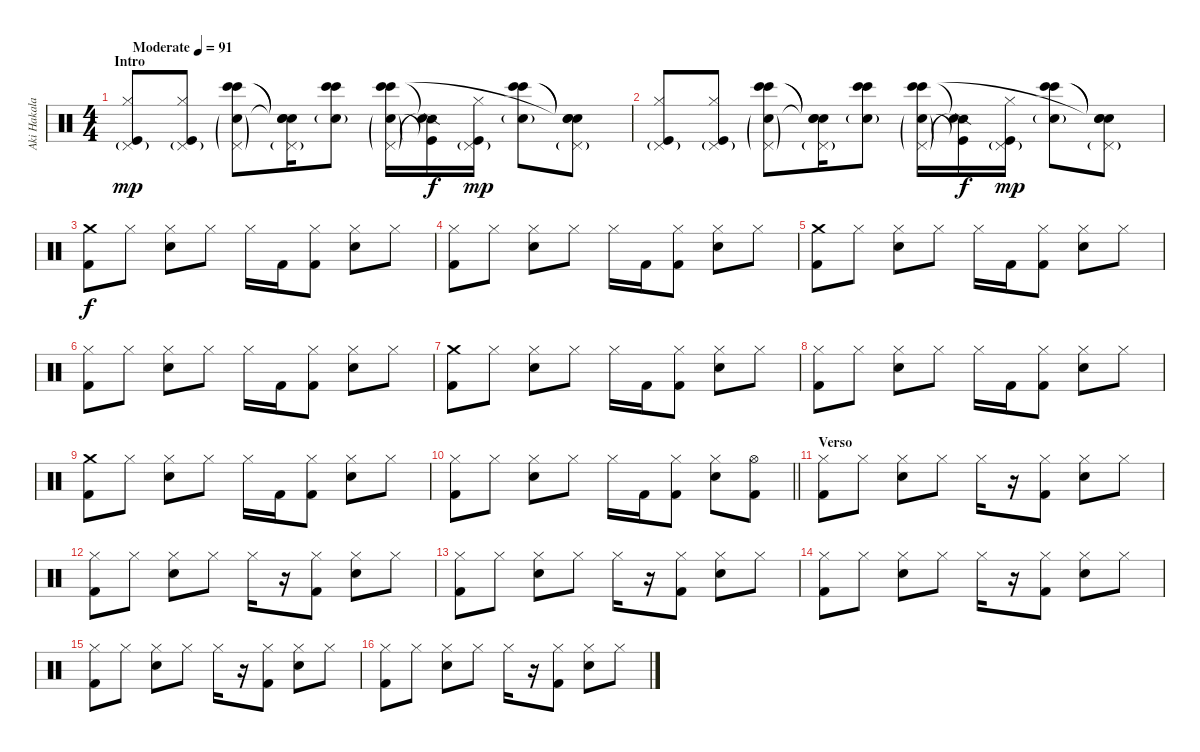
\track ("Aki Hakala" "Aki Hakala") {instrument percussion}
\staff {score}
\articulation defaults
\ts (4 4)
\section ("" "Intro")
\tempo (91 "Moderate")
\clef neutral
\ks c
("Pedal Hi-Hat (hit)"{g} "Hi-Hat (closed)" "Kick (hit)").8{dy mp} ("Pedal Hi-Hat (hit)"{g} "Hi-Hat (closed)" "Kick (hit)").8 ("Pedal Hi-Hat (hit)"{g} "Snare (hit) 2"{g} "Bongo High (hit)" "Bongo High (hit)").8 ("Pedal Hi-Hat (hit)"{g} "Snare (hit)"{t} "Snare (hit)"{t} "Snare (hit)"{t}).16 ("Snare (hit) 2"{g} "Bongo High (hit)" "Bongo High (hit)").8 ("Pedal Hi-Hat (hit)"{g} "Snare (hit) 2"{g} "Bongo High (hit)" "Bongo High (hit)").16 ("Snare (side stick) 2"{t} "Kick (hit)"{t} "Snare (hit)"{t}).16{dy f} ("Pedal Hi-Hat (hit)"{g} "Hi-Hat (closed)" "Kick (hit)").16{dy mp} ("Snare (hit) 2"{g} "Bongo High (hit)" "Bongo High (hit)").8 ("Pedal Hi-Hat (hit)"{g} "Snare (hit)"{t} "Snare (hit)"{t} "Snare (hit)"{t}).8 |
("Pedal Hi-Hat (hit)"{g} "Hi-Hat (closed)" "Kick (hit)").8 ("Pedal Hi-Hat (hit)"{g} "Hi-Hat (closed)" "Kick (hit)").8 ("Pedal Hi-Hat (hit)"{g} "Snare (hit) 2"{g} "Bongo High (hit)" "Bongo High (hit)").8 ("Pedal Hi-Hat (hit)"{g} "Snare (hit)"{t} "Snare (hit)"{t} "Snare (hit)"{t}).16 ("Snare (hit) 2"{g} "Bongo High (hit)" "Bongo High (hit)").8 ("Pedal Hi-Hat (hit)"{g} "Snare (hit) 2"{g} "Bongo High (hit)" "Bongo High (hit)").16 ("Snare (side stick) 2"{t} "Kick (hit)"{t} "Snare (hit)"{t}).16{dy f} ("Pedal Hi-Hat (hit)"{g} "Hi-Hat (closed)" "Kick (hit)").16{dy mp} ("Snare (hit) 2"{g} "Bongo High (hit)" "Bongo High (hit)").8 ("Pedal Hi-Hat (hit)"{g} "Snare (hit)"{t} "Snare (hit)"{t} "Snare (hit)"{t}).8 |
("Crash medium (hit)" "Kick (hit) 2").8{dy f} "Hi-Hat (closed)".8 ("Hi-Hat (closed)" "Electric Snare (hit)").8 "Hi-Hat (closed)".8 "Hi-Hat (closed)".16 "Kick (hit) 2".16 ("Hi-Hat (closed)" "Kick (hit) 2").8 ("Hi-Hat (closed)" "Electric Snare (hit)").8 "Hi-Hat (closed)".8 |
("Hi-Hat (closed)" "Kick (hit) 2").8 "Hi-Hat (closed)".8 ("Hi-Hat (closed)" "Electric Snare (hit)").8 "Hi-Hat (closed)".8 "Hi-Hat (closed)".16 "Kick (hit) 2".16 ("Hi-Hat (closed)" "Kick (hit) 2").8 ("Hi-Hat (closed)" "Electric Snare (hit)").8 "Hi-Hat (closed)".8 |
("Crash medium (hit)" "Kick (hit) 2").8 "Hi-Hat (closed)".8 ("Hi-Hat (closed)" "Electric Snare (hit)").8 "Hi-Hat (closed)".8 "Hi-Hat (closed)".16 "Kick (hit) 2".16 ("Hi-Hat (closed)" "Kick (hit) 2").8 ("Hi-Hat (closed)" "Electric Snare (hit)").8 "Hi-Hat (closed)".8 |
("Hi-Hat (closed)" "Kick (hit) 2").8 "Hi-Hat (closed)".8 ("Hi-Hat (closed)" "Electric Snare (hit)").8 "Hi-Hat (closed)".8 "Hi-Hat (closed)".16 "Kick (hit) 2".16 ("Hi-Hat (closed)" "Kick (hit) 2").8 ("Hi-Hat (closed)" "Electric Snare (hit)").8 "Hi-Hat (closed)".8 |
("Crash medium (hit)" "Kick (hit) 2").8 "Hi-Hat (closed)".8 ("Hi-Hat (closed)" "Electric Snare (hit)").8 "Hi-Hat (closed)".8 "Hi-Hat (closed)".16 "Kick (hit) 2".16 ("Hi-Hat (closed)" "Kick (hit) 2").8 ("Hi-Hat (closed)" "Electric Snare (hit)").8 "Hi-Hat (closed)".8 |
("Hi-Hat (closed)" "Kick (hit) 2").8 "Hi-Hat (closed)".8 ("Hi-Hat (closed)" "Electric Snare (hit)").8 "Hi-Hat (closed)".8 "Hi-Hat (closed)".16 "Kick (hit) 2".16 ("Hi-Hat (closed)" "Kick (hit) 2").8 ("Hi-Hat (closed)" "Electric Snare (hit)").8 "Hi-Hat (closed)".8 |
("Crash medium (hit)" "Kick (hit) 2").8 "Hi-Hat (closed)".8 ("Hi-Hat (closed)" "Electric Snare (hit)").8 "Hi-Hat (closed)".8 "Hi-Hat (closed)".16 "Kick (hit) 2".16 ("Hi-Hat (closed)" "Kick (hit) 2").8 ("Hi-Hat (closed)" "Electric Snare (hit)").8 "Hi-Hat (closed)".8 |
\barLineRight lightlight
("Hi-Hat (closed)" "Kick (hit) 2").8 "Hi-Hat (closed)".8 ("Hi-Hat (closed)" "Electric Snare (hit)").8 "Hi-Hat (closed)".8 "Hi-Hat (closed)".16 "Kick (hit) 2".16 ("Hi-Hat (closed)" "Kick (hit) 2").8 ("Hi-Hat (closed)" "Electric Snare (hit)").8 ("Hi-Hat (open)" "Kick (hit) 2").8 |
\section ("" "Verso")
("Hi-Hat (closed)" "Kick (hit) 2").8 "Hi-Hat (closed)".8 ("Hi-Hat (closed)" "Electric Snare (hit)").8 "Hi-Hat (closed)".8 "Hi-Hat (closed)".16 r.16 ("Hi-Hat (closed)" "Kick (hit) 2").8 ("Hi-Hat (closed)" "Electric Snare (hit)").8 "Hi-Hat (closed)".8 |
("Hi-Hat (closed)" "Kick (hit) 2").8 "Hi-Hat (closed)".8 ("Hi-Hat (closed)" "Electric Snare (hit)").8 "Hi-Hat (closed)".8 "Hi-Hat (closed)".16 r.16 ("Hi-Hat (closed)" "Kick (hit) 2").8 ("Hi-Hat (closed)" "Electric Snare (hit)").8 "Hi-Hat (closed)".8 |
("Hi-Hat (closed)" "Kick (hit) 2").8 "Hi-Hat (closed)".8 ("Hi-Hat (closed)" "Electric Snare (hit)").8 "Hi-Hat (closed)".8 "Hi-Hat (closed)".16 r.16 ("Hi-Hat (closed)" "Kick (hit) 2").8 ("Hi-Hat (closed)" "Electric Snare (hit)").8 "Hi-Hat (closed)".8 |
("Hi-Hat (closed)" "Kick (hit) 2").8 "Hi-Hat (closed)".8 ("Hi-Hat (closed)" "Electric Snare (hit)").8 "Hi-Hat (closed)".8 "Hi-Hat (closed)".16 r.16 ("Hi-Hat (closed)" "Kick (hit) 2").8 ("Hi-Hat (closed)" "Electric Snare (hit)").8 "Hi-Hat (closed)".8 |
("Hi-Hat (closed)" "Kick (hit) 2").8 "Hi-Hat (closed)".8 ("Hi-Hat (closed)" "Electric Snare (hit)").8 "Hi-Hat (closed)".8 "Hi-Hat (closed)".16 r.16 ("Hi-Hat (closed)" "Kick (hit) 2").8 ("Hi-Hat (closed)" "Electric Snare (hit)").8 "Hi-Hat (closed)".8 |
("Hi-Hat (closed)" "Kick (hit) 2").8 "Hi-Hat (closed)".8 ("Hi-Hat (closed)" "Electric Snare (hit)").8 "Hi-Hat (closed)".8 "Hi-Hat (closed)".16 r.16 ("Hi-Hat (closed)" "Kick (hit) 2").8 ("Hi-Hat (closed)" "Electric Snare (hit)").8 "Hi-Hat (closed)".8
